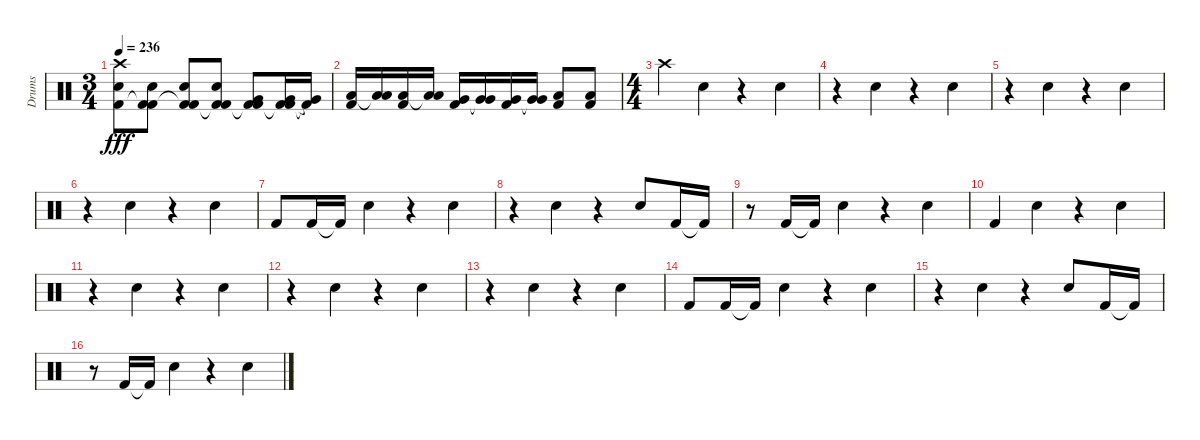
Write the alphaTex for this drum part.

\track ("Drums" "Drums") {instrument percussion}
\staff {score}
\articulation defaults
\ts (3 4)
\tempo 236
\clef neutral
\ks c
("Kick (hit) 2" "Snare (hit) 2" "Crash high (hit)").8{dy fff} ("Kick (hit) 2"{t} "Snare (hit) 2" "Kick (hit) 2").8 ("Kick (hit) 2"{t} "Kick (hit) 2" "Snare (hit) 2").8 ("Kick (hit) 2"{t} "Kick (hit) 2" "Snare (hit) 2").8 ("Kick (hit) 2"{t} "Very Low Tom (hit)" "Kick (hit) 2").8 ("Kick (hit) 2"{t} "Kick (hit) 2" "Very Low Tom (hit)").16 ("Kick (hit) 2"{t} "Very Low Tom (hit)"{t}).16 |
("Low Tom (hit)" "Kick (hit) 2").16 ("Low Tom (hit)"{t} "Low Tom (hit)").16 ("Low Tom (hit)" "Kick (hit) 2").16 ("Low Tom (hit)"{t} "Low Tom (hit)").16 ("Very Low Tom (hit)" "Kick (hit) 2").16 ("Very Low Tom (hit)"{t} "Very Low Tom (hit)").16 ("Very Low Tom (hit)" "Kick (hit) 2").16 ("Very Low Tom (hit)"{t} "Very Low Tom (hit)").16 ("Kick (hit) 2" "Low Floor Tom (hit)").8 ("Kick (hit) 2" "Low Floor Tom (hit)").8 |
\ts (4 4)
"Crash high (hit)".4 "Snare (hit) 2".4 r.4 "Snare (hit) 2".4 |
r.4 "Snare (hit) 2".4 r.4 "Snare (hit) 2".4 |
r.4 "Snare (hit) 2".4 r.4 "Snare (hit) 2".4 |
r.4 "Snare (hit) 2".4 r.4 "Snare (hit) 2".4 |
"Kick (hit) 2".8 "Kick (hit) 2".16 "Kick (hit) 2"{t}.16 "Snare (hit) 2".4 r.4 "Snare (hit) 2".4 |
r.4 "Snare (hit) 2".4 r.4 "Snare (hit) 2".8 "Kick (hit) 2".16 "Kick (hit) 2"{t}.16 |
r.8 "Kick (hit) 2".16 "Kick (hit) 2"{t}.16 "Snare (hit) 2".4 r.4 "Snare (hit) 2".4 |
"Kick (hit) 2".4 "Snare (hit) 2".4 r.4 "Snare (hit) 2".4 |
r.4 "Snare (hit) 2".4 r.4 "Snare (hit) 2".4 |
r.4 "Snare (hit) 2".4 r.4 "Snare (hit) 2".4 |
r.4 "Snare (hit) 2".4 r.4 "Snare (hit) 2".4 |
"Kick (hit) 2".8 "Kick (hit) 2".16 "Kick (hit) 2"{t}.16 "Snare (hit) 2".4 r.4 "Snare (hit) 2".4 |
r.4 "Snare (hit) 2".4 r.4 "Snare (hit) 2".8 "Kick (hit) 2".16 "Kick (hit) 2"{t}.16 |
r.8 "Kick (hit) 2".16 "Kick (hit) 2"{t}.16 "Snare (hit) 2".4 r.4 "Snare (hit) 2".4
